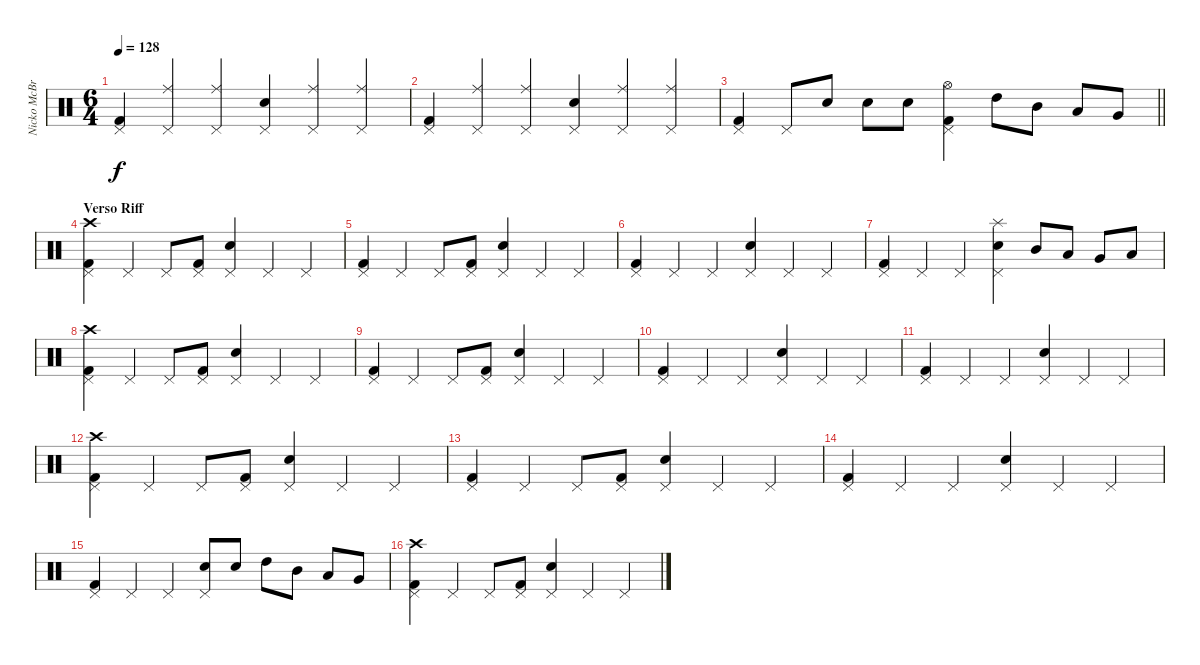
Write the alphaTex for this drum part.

\track ("Nicko McBrain" "Nicko McBr") {instrument percussion}
\staff {score}
\articulation defaults
\ts (6 4)
\tempo 128
\clef neutral
\ks c
("Kick (hit) 2" "Pedal Hi-Hat (hit)").4{dy f} ("Pedal Hi-Hat (hit)" "Ride (middle)").4 ("Pedal Hi-Hat (hit)" "Ride (middle)").4 ("Snare (hit) 2" "Pedal Hi-Hat (hit)").4 ("Pedal Hi-Hat (hit)" "Ride (middle)").4 ("Pedal Hi-Hat (hit)" "Ride (middle)").4 |
("Kick (hit) 2" "Pedal Hi-Hat (hit)").4 ("Pedal Hi-Hat (hit)" "Ride (middle)").4 ("Pedal Hi-Hat (hit)" "Ride (middle)").4 ("Snare (hit) 2" "Pedal Hi-Hat (hit)").4 ("Pedal Hi-Hat (hit)" "Ride (middle)").4 ("Pedal Hi-Hat (hit)" "Ride (middle)").4 |
\barLineRight lightlight
("Kick (hit) 2" "Pedal Hi-Hat (hit)").4 "Pedal Hi-Hat (hit)".8 "Snare (hit) 2".8 "Snare (hit) 2".8 "Snare (hit) 2".8 ("Kick (hit) 2" "Pedal Hi-Hat (hit)" "Hi-Hat (open)").4 "High Tom (hit)".8 "Mid Tom (hit)".8 "Low Tom (hit)".8 "Very Low Tom (hit)".8 |
\section ("" "Verso Riff")
("Kick (hit) 2" "Pedal Hi-Hat (hit)" "Crash high (hit)").4 "Pedal Hi-Hat (hit)".4 "Pedal Hi-Hat (hit)".8 ("Kick (hit) 2" "Pedal Hi-Hat (hit)").8 ("Snare (hit) 2" "Pedal Hi-Hat (hit)").4 "Pedal Hi-Hat (hit)".4 "Pedal Hi-Hat (hit)".4 |
("Kick (hit) 2" "Pedal Hi-Hat (hit)").4 "Pedal Hi-Hat (hit)".4 "Pedal Hi-Hat (hit)".8 ("Kick (hit) 2" "Pedal Hi-Hat (hit)").8 ("Snare (hit) 2" "Pedal Hi-Hat (hit)").4 "Pedal Hi-Hat (hit)".4 "Pedal Hi-Hat (hit)".4 |
("Kick (hit) 2" "Pedal Hi-Hat (hit)").4 "Pedal Hi-Hat (hit)".4 "Pedal Hi-Hat (hit)".4 ("Snare (hit) 2" "Pedal Hi-Hat (hit)").4 "Pedal Hi-Hat (hit)".4 "Pedal Hi-Hat (hit)".4 |
("Kick (hit) 2" "Pedal Hi-Hat (hit)").4 "Pedal Hi-Hat (hit)".4 "Pedal Hi-Hat (hit)".4 ("Snare (hit) 2" "Pedal Hi-Hat (hit)" "Splash (hit)").4 "Mid Tom (hit)".8 "Low Tom (hit)".8 "Very Low Tom (hit)".8 "Low Floor Tom (hit)".8 |
("Kick (hit) 2" "Pedal Hi-Hat (hit)" "Crash high (hit)").4 "Pedal Hi-Hat (hit)".4 "Pedal Hi-Hat (hit)".8 ("Kick (hit) 2" "Pedal Hi-Hat (hit)").8 ("Snare (hit) 2" "Pedal Hi-Hat (hit)").4 "Pedal Hi-Hat (hit)".4 "Pedal Hi-Hat (hit)".4 |
("Kick (hit) 2" "Pedal Hi-Hat (hit)").4 "Pedal Hi-Hat (hit)".4 "Pedal Hi-Hat (hit)".8 ("Kick (hit) 2" "Pedal Hi-Hat (hit)").8 ("Snare (hit) 2" "Pedal Hi-Hat (hit)").4 "Pedal Hi-Hat (hit)".4 "Pedal Hi-Hat (hit)".4 |
("Kick (hit) 2" "Pedal Hi-Hat (hit)").4 "Pedal Hi-Hat (hit)".4 "Pedal Hi-Hat (hit)".4 ("Snare (hit) 2" "Pedal Hi-Hat (hit)").4 "Pedal Hi-Hat (hit)".4 "Pedal Hi-Hat (hit)".4 |
("Kick (hit) 2" "Pedal Hi-Hat (hit)").4 "Pedal Hi-Hat (hit)".4 "Pedal Hi-Hat (hit)".4 ("Snare (hit) 2" "Pedal Hi-Hat (hit)").4 "Pedal Hi-Hat (hit)".4 "Pedal Hi-Hat (hit)".4 |
("Kick (hit) 2" "Pedal Hi-Hat (hit)" "Crash high (hit)").4 "Pedal Hi-Hat (hit)".4 "Pedal Hi-Hat (hit)".8 ("Kick (hit) 2" "Pedal Hi-Hat (hit)").8 ("Snare (hit) 2" "Pedal Hi-Hat (hit)").4 "Pedal Hi-Hat (hit)".4 "Pedal Hi-Hat (hit)".4 |
("Kick (hit) 2" "Pedal Hi-Hat (hit)").4 "Pedal Hi-Hat (hit)".4 "Pedal Hi-Hat (hit)".8 ("Kick (hit) 2" "Pedal Hi-Hat (hit)").8 ("Snare (hit) 2" "Pedal Hi-Hat (hit)").4 "Pedal Hi-Hat (hit)".4 "Pedal Hi-Hat (hit)".4 |
("Kick (hit) 2" "Pedal Hi-Hat (hit)").4 "Pedal Hi-Hat (hit)".4 "Pedal Hi-Hat (hit)".4 ("Snare (hit) 2" "Pedal Hi-Hat (hit)").4 "Pedal Hi-Hat (hit)".4 "Pedal Hi-Hat (hit)".4 |
("Kick (hit) 2" "Pedal Hi-Hat (hit)").4 "Pedal Hi-Hat (hit)".4 "Pedal Hi-Hat (hit)".4 ("Snare (hit) 2" "Pedal Hi-Hat (hit)").8 "Snare (hit) 2".8 "High Tom (hit)".8 "Mid Tom (hit)".8 "Low Tom (hit)".8 "Very Low Tom (hit)".8 |
("Kick (hit) 2" "Pedal Hi-Hat (hit)" "Crash high (hit)").4 "Pedal Hi-Hat (hit)".4 "Pedal Hi-Hat (hit)".8 ("Kick (hit) 2" "Pedal Hi-Hat (hit)").8 ("Snare (hit) 2" "Pedal Hi-Hat (hit)").4 "Pedal Hi-Hat (hit)".4 "Pedal Hi-Hat (hit)".4
